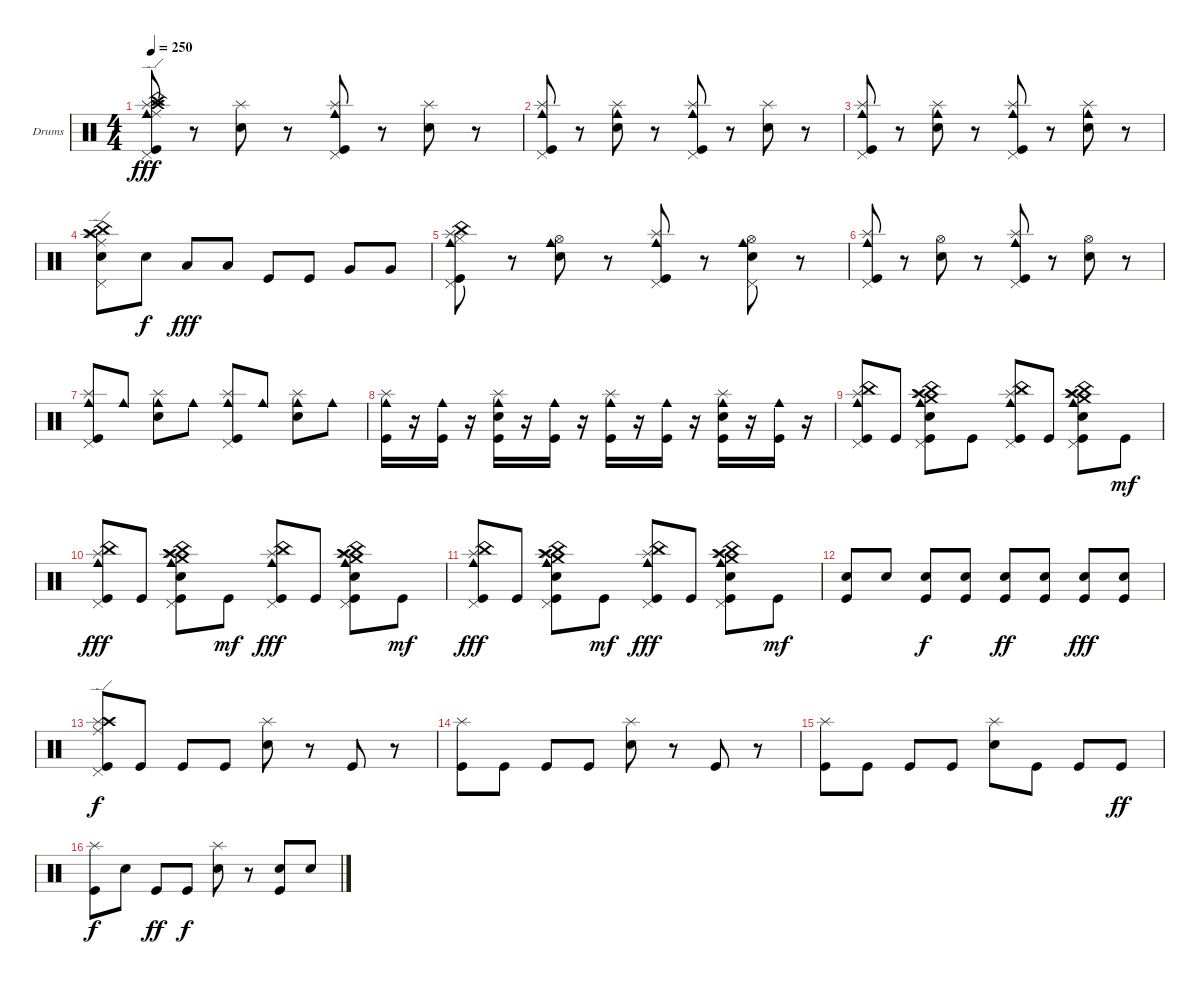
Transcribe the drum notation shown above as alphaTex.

\defaultSystemsLayout 4
\bracketExtendMode groupsimilarinstruments
\firstSystemTrackNameOrientation horizontal
\otherSystemsTrackNameOrientation horizontal
\track ("Драмки" "Drums") {instrument percussion}
\staff {score}
\articulation defaults
\ts (4 4)
\tempo 250
\clef neutral
\ks c
("Kick (hit)" "Cowbell medium (hit)" "China (hit)" "Splash (hit)" "Crash high (hit)" "Ride (edge)" "Pedal Hi-Hat (hit)").8{dy fff} r.8 ("Snare (hit) 2" "Splash (hit)").8 r.8 ("Kick (hit)" "Cowbell medium (hit)" "Pedal Hi-Hat (hit)" "Splash (hit)").8 r.8 ("Snare (hit) 2" "Splash (hit)").8 r.8 |
("Cowbell medium (hit)" "Kick (hit)" "Pedal Hi-Hat (hit)" "Splash (hit)").8 r.8 ("Cowbell medium (hit)" "Snare (hit) 2" "Splash (hit)").8 r.8 ("Cowbell medium (hit)" "Kick (hit)" "Pedal Hi-Hat (hit)" "Splash (hit)").8 r.8 ("Snare (hit) 2" "Splash (hit)").8 r.8 |
("Cowbell medium (hit)" "Kick (hit)" "Pedal Hi-Hat (hit)" "Splash (hit)").8 r.8 ("Cowbell medium (hit)" "Snare (hit) 2" "Splash (hit)").8 r.8 ("Cowbell medium (hit)" "Kick (hit)" "Pedal Hi-Hat (hit)" "Splash (hit)").8 r.8 ("Cowbell medium (hit)" "Snare (hit) 2" "Splash (hit)").8 r.8 |
("Splash (hit)" "China (hit)" "Crash high (hit)" "Pedal Hi-Hat (hit)" "Ride (edge)" "Snare (hit) 2").8 "Snare (hit) 2".8{dy f} "Low Tom (hit)".8{dy fff} "Low Tom (hit)".8 "Kick (hit)".8 "Kick (hit)".8 "Very Low Tom (hit)".8 "Very Low Tom (hit)".8 |
("Cowbell medium (hit)" "Kick (hit)" "Pedal Hi-Hat (hit)" "Hi-Hat (closed)" "Splash (hit)" "China (hit)").8 r.8 ("Cowbell medium (hit)" "Snare (hit) 2" "Hi-Hat (open)").8 r.8 ("Cowbell medium (hit)" "Kick (hit)" "Pedal Hi-Hat (hit)" "Splash (hit)").8 r.8 ("Cowbell medium (hit)" "Snare (hit) 2" "Pedal Hi-Hat (hit)" "Hi-Hat (open)").8 r.8 |
("Cowbell medium (hit)" "Kick (hit)" "Pedal Hi-Hat (hit)" "Splash (hit)").8 r.8 ("Snare (hit) 2" "Hi-Hat (open)").8 r.8 ("Cowbell medium (hit)" "Kick (hit)" "Pedal Hi-Hat (hit)" "Splash (hit)").8 r.8 ("Snare (hit) 2" "Hi-Hat (open)").8 r.8 |
("Cowbell medium (hit)" "Pedal Hi-Hat (hit)" "Kick (hit)" "Splash (hit)").8 "Cowbell medium (hit)".8 ("Cowbell medium (hit)" "Snare (hit) 2" "Splash (hit)").8 "Cowbell medium (hit)".8 ("Cowbell medium (hit)" "Pedal Hi-Hat (hit)" "Kick (hit)" "Splash (hit)").8 "Cowbell medium (hit)".8 ("Cowbell medium (hit)" "Snare (hit) 2" "Splash (hit)").8 "Cowbell medium (hit)".8 |
("Kick (hit)" "Splash (hit)" "Cowbell medium (hit)").16 r.16 ("Kick (hit)" "Cowbell medium (hit)").16 r.16 ("Kick (hit)" "Snare (hit) 2" "Splash (hit)" "Cowbell medium (hit)").16 r.16 ("Kick (hit)" "Cowbell medium (hit)").16 r.16 ("Kick (hit)" "Splash (hit)" "Cowbell medium (hit)").16 r.16 ("Kick (hit)" "Cowbell medium (hit)").16 r.16 ("Kick (hit)" "Splash (hit)" "Snare (hit) 2" "Cowbell medium (hit)").16 r.16 ("Kick (hit)" "Cowbell medium (hit)").16 r.16 |
("Splash (hit)" "China (hit)" "Pedal Hi-Hat (hit)" "Kick (hit)" "Cowbell medium (hit)").8 "Kick (hit)".8 ("Snare (hit) 2" "Splash (hit)" "Pedal Hi-Hat (hit)" "China (hit)" "Crash high (hit)" "Crash medium (hit)" "Kick (hit)" "Cowbell medium (hit)").8 "Kick (hit)".8 ("Splash (hit)" "China (hit)" "Kick (hit)" "Pedal Hi-Hat (hit)" "Cowbell medium (hit)").8 "Kick (hit)".8 ("Snare (hit) 2" "Splash (hit)" "Pedal Hi-Hat (hit)" "China (hit)" "Crash high (hit)" "Crash medium (hit)" "Kick (hit)" "Cowbell medium (hit)").8 "Kick (hit)".8{dy mf} |
("Kick (hit)" "Splash (hit)" "China (hit)" "Pedal Hi-Hat (hit)" "Cowbell medium (hit)").8{dy fff} "Kick (hit)".8 ("Snare (hit) 2" "Splash (hit)" "Pedal Hi-Hat (hit)" "China (hit)" "Crash high (hit)" "Crash medium (hit)" "Kick (hit)" "Cowbell medium (hit)").8 "Kick (hit)".8{dy mf} ("Kick (hit)" "Pedal Hi-Hat (hit)" "Splash (hit)" "China (hit)" "Cowbell medium (hit)").8{dy fff} "Kick (hit)".8 ("Pedal Hi-Hat (hit)" "Crash medium (hit)" "Splash (hit)" "Crash high (hit)" "China (hit)" "Snare (hit) 2" "Kick (hit)" "Cowbell medium (hit)").8 "Kick (hit)".8{dy mf} |
("Kick (hit)" "Splash (hit)" "China (hit)" "Pedal Hi-Hat (hit)" "Cowbell medium (hit)").8{dy fff} "Kick (hit)".8 ("Snare (hit) 2" "Splash (hit)" "Pedal Hi-Hat (hit)" "China (hit)" "Crash high (hit)" "Crash medium (hit)" "Kick (hit)" "Cowbell medium (hit)").8 "Kick (hit)".8{dy mf} ("Kick (hit)" "Pedal Hi-Hat (hit)" "Splash (hit)" "China (hit)" "Cowbell medium (hit)").8{dy fff} "Kick (hit)".8 ("Pedal Hi-Hat (hit)" "Crash medium (hit)" "Splash (hit)" "Crash high (hit)" "China (hit)" "Snare (hit) 2" "Kick (hit)" "Cowbell medium (hit)").8 "Kick (hit)".8{dy mf} |
("Kick (hit)" "Snare (hit) 2").8 "Snare (hit) 2".8 ("Kick (hit)" "Snare (hit) 2").8{dy f} ("Kick (hit)" "Snare (hit) 2").8 ("Kick (hit)" "Snare (hit) 2").8{dy ff} ("Kick (hit)" "Snare (hit) 2").8 ("Kick (hit)" "Snare (hit) 2").8{dy fff} ("Kick (hit)" "Snare (hit) 2").8 |
("Kick (hit)" "Splash (hit)" "Crash high (hit)" "Ride (edge)" "Pedal Hi-Hat (hit)").8{dy f} "Kick (hit)".8 "Kick (hit)".8 "Kick (hit)".8 ("Snare (hit) 2" "Splash (hit)").8 r.8 "Kick (hit)".8 r.8 |
("Splash (hit)" "Kick (hit)").8 "Kick (hit)".8 "Kick (hit)".8 "Kick (hit)".8 ("Snare (hit) 2" "Splash (hit)").8 r.8 "Kick (hit)".8 r.8 |
("Kick (hit)" "Splash (hit)").8 "Kick (hit)".8 "Kick (hit)".8 "Kick (hit)".8 ("Snare (hit) 2" "Splash (hit)").8 "Kick (hit)".8 "Kick (hit)".8 "Kick (hit)".8{dy ff} |
("Kick (hit)" "Splash (hit)").8{dy f} "Snare (hit) 2".8 "Kick (hit)".8{dy ff} "Kick (hit)".8{dy f} ("Snare (hit) 2" "Splash (hit)").8 r.8 ("Snare (hit) 2" "Kick (hit)").8 "Snare (hit) 2".8
